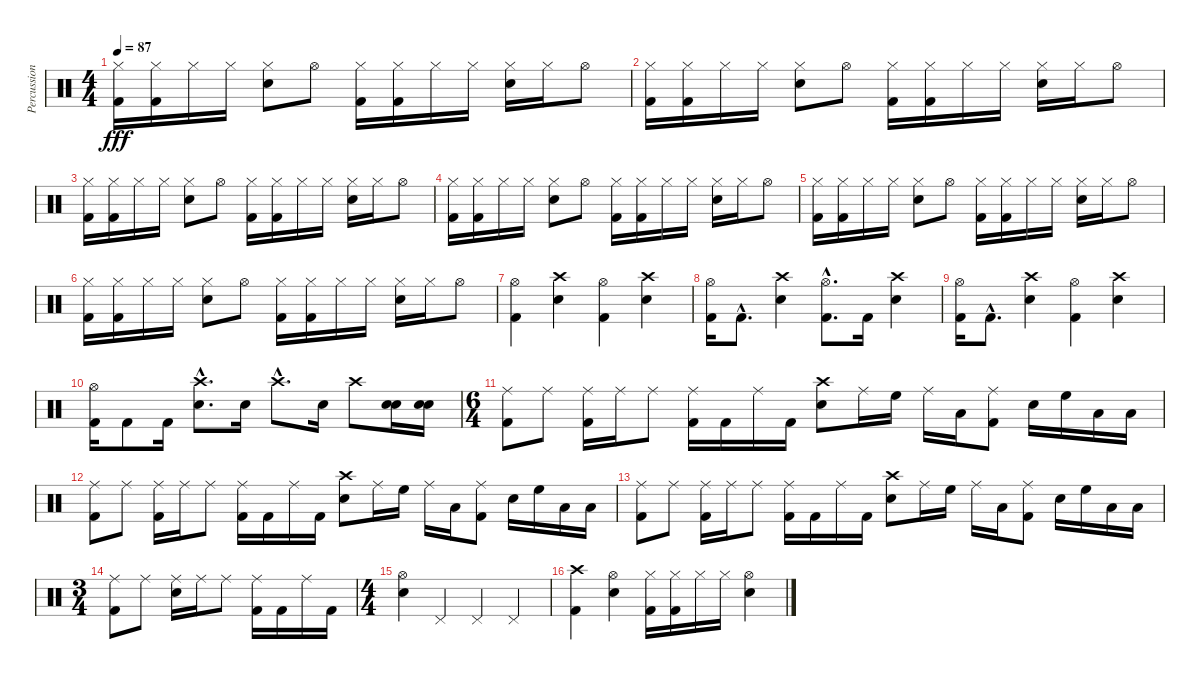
\track ("Percussions" "Percussion") {instrument percussion}
\staff {score}
\articulation defaults
\ts (4 4)
\tempo 87
\clef neutral
\ks c
("Hi-Hat (closed)" "Kick (hit) 2").16{dy fff} ("Hi-Hat (closed)" "Kick (hit) 2").16 "Hi-Hat (closed)".16 "Hi-Hat (closed)".16 ("Electric Snare (hit)" "Hi-Hat (closed)").8 "Hi-Hat (open)".8 ("Hi-Hat (closed)" "Kick (hit) 2").16 ("Hi-Hat (closed)" "Kick (hit) 2").16 "Hi-Hat (closed)".16 "Hi-Hat (closed)".16 ("Electric Snare (hit)" "Hi-Hat (closed)").16 "Hi-Hat (closed)".16 "Hi-Hat (open)".8 |
("Hi-Hat (closed)" "Kick (hit) 2").16 ("Hi-Hat (closed)" "Kick (hit) 2").16 "Hi-Hat (closed)".16 "Hi-Hat (closed)".16 ("Electric Snare (hit)" "Hi-Hat (closed)").8 "Hi-Hat (open)".8 ("Hi-Hat (closed)" "Kick (hit) 2").16 ("Hi-Hat (closed)" "Kick (hit) 2").16 "Hi-Hat (closed)".16 "Hi-Hat (closed)".16 ("Electric Snare (hit)" "Hi-Hat (closed)").16 "Hi-Hat (closed)".16 "Hi-Hat (open)".8 |
("Hi-Hat (closed)" "Kick (hit) 2").16 ("Hi-Hat (closed)" "Kick (hit) 2").16 "Hi-Hat (closed)".16 "Hi-Hat (closed)".16 ("Electric Snare (hit)" "Hi-Hat (closed)").8 "Hi-Hat (open)".8 ("Hi-Hat (closed)" "Kick (hit) 2").16 ("Hi-Hat (closed)" "Kick (hit) 2").16 "Hi-Hat (closed)".16 "Hi-Hat (closed)".16 ("Electric Snare (hit)" "Hi-Hat (closed)").16 "Hi-Hat (closed)".16 "Hi-Hat (open)".8 |
("Hi-Hat (closed)" "Kick (hit) 2").16 ("Hi-Hat (closed)" "Kick (hit) 2").16 "Hi-Hat (closed)".16 "Hi-Hat (closed)".16 ("Electric Snare (hit)" "Hi-Hat (closed)").8 "Hi-Hat (open)".8 ("Hi-Hat (closed)" "Kick (hit) 2").16 ("Hi-Hat (closed)" "Kick (hit) 2").16 "Hi-Hat (closed)".16 "Hi-Hat (closed)".16 ("Electric Snare (hit)" "Hi-Hat (closed)").16 "Hi-Hat (closed)".16 "Hi-Hat (open)".8 |
("Hi-Hat (closed)" "Kick (hit) 2").16 ("Hi-Hat (closed)" "Kick (hit) 2").16 "Hi-Hat (closed)".16 "Hi-Hat (closed)".16 ("Electric Snare (hit)" "Hi-Hat (closed)").8 "Hi-Hat (open)".8 ("Hi-Hat (closed)" "Kick (hit) 2").16 ("Hi-Hat (closed)" "Kick (hit) 2").16 "Hi-Hat (closed)".16 "Hi-Hat (closed)".16 ("Electric Snare (hit)" "Hi-Hat (closed)").16 "Hi-Hat (closed)".16 "Hi-Hat (open)".8 |
("Hi-Hat (closed)" "Kick (hit) 2").16 ("Hi-Hat (closed)" "Kick (hit) 2").16 "Hi-Hat (closed)".16 "Hi-Hat (closed)".16 ("Electric Snare (hit)" "Hi-Hat (closed)").8 "Hi-Hat (open)".8 ("Hi-Hat (closed)" "Kick (hit) 2").16 ("Hi-Hat (closed)" "Kick (hit) 2").16 "Hi-Hat (closed)".16 "Hi-Hat (closed)".16 ("Electric Snare (hit)" "Hi-Hat (closed)").16 "Hi-Hat (closed)".16 "Hi-Hat (open)".8 |
("Hi-Hat (open)" "Kick (hit) 2").4 ("Electric Snare (hit)" "Crash high (hit)").4 ("Hi-Hat (open)" "Kick (hit) 2").4 ("Electric Snare (hit)" "Crash high (hit)").4 |
("Hi-Hat (open)" "Kick (hit) 2").16 "Kick (hit) 2"{hac}.8{d} ("Electric Snare (hit)" "Crash high (hit)").4 ("Hi-Hat (open)"{hac} "Kick (hit) 2"{hac}).8{d} "Kick (hit) 2".16 ("Electric Snare (hit)" "Crash high (hit)").4 |
("Hi-Hat (open)" "Kick (hit) 2").16 "Kick (hit) 2"{hac}.8{d} ("Electric Snare (hit)" "Crash high (hit)").4 ("Hi-Hat (open)" "Kick (hit) 2").4 ("Electric Snare (hit)" "Crash high (hit)").4 |
("Hi-Hat (open)" "Kick (hit) 2").16 "Kick (hit) 2".8 "Kick (hit) 2".16 ("Electric Snare (hit)"{hac} "Crash high (hit)"{hac}).8{d} "Electric Snare (hit)".16 "Crash high (hit)"{hac}.8{d} "Electric Snare (hit)".16 "Crash high (hit)".8 ("Electric Snare (hit)" "Electric Snare (hit)").16 ("Electric Snare (hit)" "Electric Snare (hit)").16 |
\ts (6 4)
("Ride (middle)" "Kick (hit) 2").8 "Ride (middle)".8 ("Ride (middle)" "Kick (hit) 2").16 "Ride (middle)".16 "Ride (middle)".8 ("Ride (middle)" "Kick (hit) 2").16 "Kick (hit) 2".16 "Ride (middle)".16 "Kick (hit) 2".16 ("Electric Snare (hit)" "Crash high (hit)").8 "Ride (middle)".16 "High Floor Tom (hit)".16 "Ride (middle)".16 "Low Tom (hit)".16 ("Ride (middle)" "Kick (hit) 2").8 "Electric Snare (hit)".16 "High Floor Tom (hit)".16 "Low Tom (hit)".16 "Low Tom (hit)".16 |
("Ride (middle)" "Kick (hit) 2").8 "Ride (middle)".8 ("Ride (middle)" "Kick (hit) 2").16 "Ride (middle)".16 "Ride (middle)".8 ("Ride (middle)" "Kick (hit) 2").16 "Kick (hit) 2".16 "Ride (middle)".16 "Kick (hit) 2".16 ("Electric Snare (hit)" "Crash high (hit)").8 "Ride (middle)".16 "High Floor Tom (hit)".16 "Ride (middle)".16 "Low Tom (hit)".16 ("Ride (middle)" "Kick (hit) 2").8 "Electric Snare (hit)".16 "High Floor Tom (hit)".16 "Low Tom (hit)".16 "Low Tom (hit)".16 |
("Ride (middle)" "Kick (hit) 2").8 "Ride (middle)".8 ("Ride (middle)" "Kick (hit) 2").16 "Ride (middle)".16 "Ride (middle)".8 ("Ride (middle)" "Kick (hit) 2").16 "Kick (hit) 2".16 "Ride (middle)".16 "Kick (hit) 2".16 ("Electric Snare (hit)" "Crash high (hit)").8 "Ride (middle)".16 "High Floor Tom (hit)".16 "Ride (middle)".16 "Low Tom (hit)".16 ("Ride (middle)" "Kick (hit) 2").8 "Electric Snare (hit)".16 "High Floor Tom (hit)".16 "Low Tom (hit)".16 "Low Tom (hit)".16 |
\ts (3 4)
("Ride (middle)" "Kick (hit) 2").8 "Ride (middle)".8 ("Electric Snare (hit)" "Ride (middle)").16 "Ride (middle)".16 "Ride (middle)".8 ("Ride (middle)" "Kick (hit) 2").16 "Kick (hit) 2".16 "Ride (middle)".16 "Kick (hit) 2".16 |
\ts (4 4)
("Electric Snare (hit)" "Hi-Hat (open)").4 "Pedal Hi-Hat (hit)".4 "Pedal Hi-Hat (hit)".4 "Pedal Hi-Hat (hit)".4 |
("Crash high (hit)" "Kick (hit) 2").4 ("Electric Snare (hit)" "Hi-Hat (open)").4 ("Hi-Hat (closed)" "Kick (hit) 2").16 ("Hi-Hat (closed)" "Kick (hit) 2").16 "Hi-Hat (closed)".16 "Hi-Hat (closed)".16 ("Electric Snare (hit)" "Hi-Hat (open)").4
